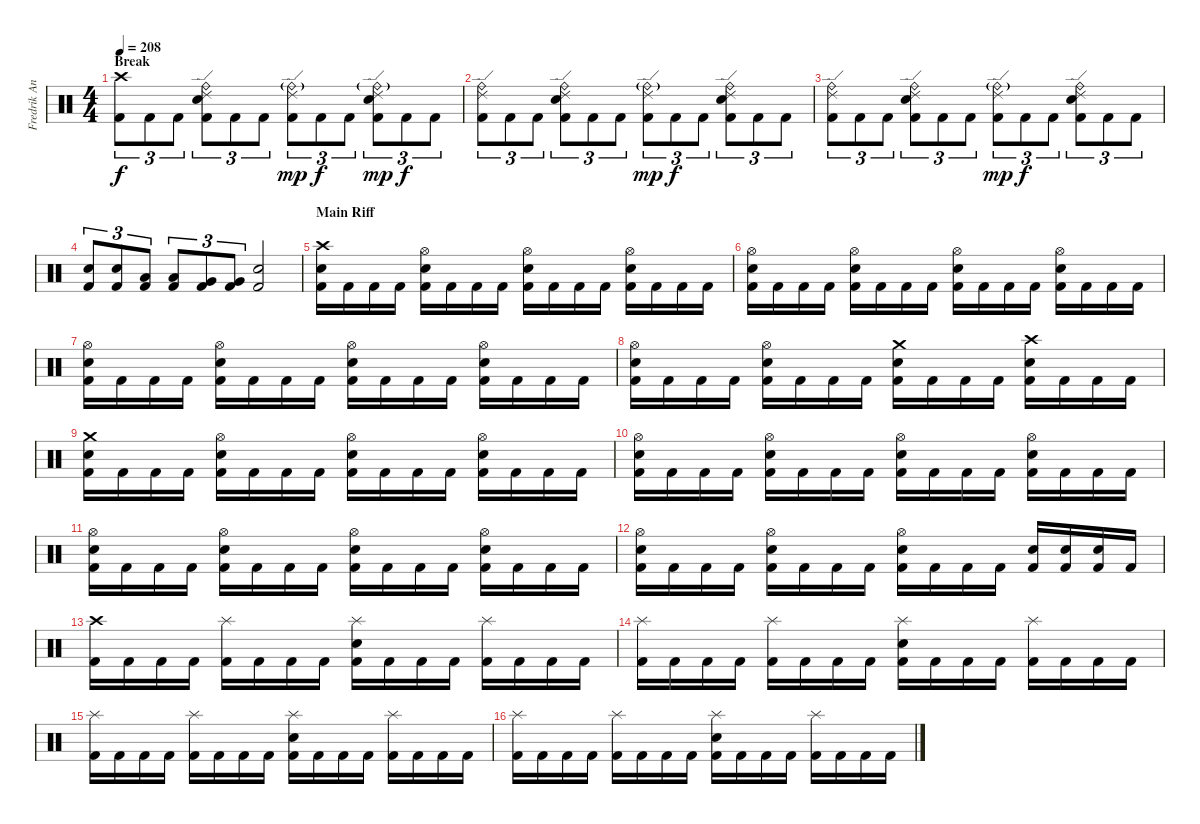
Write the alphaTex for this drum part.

\track ("Fredrik Andersson" "Fredrik An") {instrument percussion}
\staff {score}
\articulation defaults
\ts (4 4)
\section ("" "Break")
\tempo 208
\clef neutral
\ks c
("Crash high (hit)" "Kick (hit) 2").8{tu (3 2) dy f} "Kick (hit) 2".8{tu (3 2)} "Kick (hit) 2".8{tu (3 2)} ("Ride (edge) 2" "Electric Snare (hit)" "Ride (bell)" "Kick (hit) 2").8{tu (3 2)} "Kick (hit) 2".8{tu (3 2)} "Kick (hit) 2".8{tu (3 2)} ("Ride (edge) 2" "Ride (bell)"{g} "Kick (hit) 2").8{tu (3 2) dy mp} "Kick (hit) 2".8{tu (3 2) dy f} "Kick (hit) 2".8{tu (3 2)} ("Ride (edge) 2" "Electric Snare (hit)" "Ride (bell)"{g} "Kick (hit) 2").8{tu (3 2) dy mp} "Kick (hit) 2".8{tu (3 2) dy f} "Kick (hit) 2".8{tu (3 2)} |
("Ride (edge) 2" "Ride (bell)" "Kick (hit) 2").8{tu (3 2)} "Kick (hit) 2".8{tu (3 2)} "Kick (hit) 2".8{tu (3 2)} ("Ride (edge) 2" "Electric Snare (hit)" "Ride (bell)" "Kick (hit) 2").8{tu (3 2)} "Kick (hit) 2".8{tu (3 2)} "Kick (hit) 2".8{tu (3 2)} ("Ride (edge) 2" "Ride (bell)"{g} "Kick (hit) 2").8{tu (3 2) dy mp} "Kick (hit) 2".8{tu (3 2) dy f} "Kick (hit) 2".8{tu (3 2)} ("Ride (edge) 2" "Electric Snare (hit)" "Ride (bell)" "Kick (hit) 2").8{tu (3 2)} "Kick (hit) 2".8{tu (3 2)} "Kick (hit) 2".8{tu (3 2)} |
("Ride (edge) 2" "Ride (bell)" "Kick (hit) 2").8{tu (3 2)} "Kick (hit) 2".8{tu (3 2)} "Kick (hit) 2".8{tu (3 2)} ("Ride (edge) 2" "Electric Snare (hit)" "Ride (bell)" "Kick (hit) 2").8{tu (3 2)} "Kick (hit) 2".8{tu (3 2)} "Kick (hit) 2".8{tu (3 2)} ("Ride (edge) 2" "Ride (bell)"{g} "Kick (hit) 2").8{tu (3 2) dy mp} "Kick (hit) 2".8{tu (3 2) dy f} "Kick (hit) 2".8{tu (3 2)} ("Ride (edge) 2" "Electric Snare (hit)" "Ride (bell)" "Kick (hit) 2").8{tu (3 2)} "Kick (hit) 2".8{tu (3 2)} "Kick (hit) 2".8{tu (3 2)} |
("Electric Snare (hit)" "Kick (hit) 2").8{tu (3 2)} ("Electric Snare (hit)" "Kick (hit) 2").8{tu (3 2)} ("Low Tom (hit)" "Kick (hit) 2").8{tu (3 2)} ("Low Tom (hit)" "Kick (hit) 2").8{tu (3 2)} ("Very Low Tom (hit)" "Kick (hit) 2").8{tu (3 2)} ("Very Low Tom (hit)" "Kick (hit) 2").8{tu (3 2)} ("Electric Snare (hit)" "Kick (hit) 2").2 |
\section ("" "Main Riff")
("Crash high (hit)" "Electric Snare (hit)" "Kick (hit) 2").16 "Kick (hit) 2".16 "Kick (hit) 2".16 "Kick (hit) 2".16 ("Hi-Hat (open)" "Electric Snare (hit)" "Kick (hit) 2").16 "Kick (hit) 2".16 "Kick (hit) 2".16 "Kick (hit) 2".16 ("Hi-Hat (open)" "Electric Snare (hit)" "Kick (hit) 2").16 "Kick (hit) 2".16 "Kick (hit) 2".16 "Kick (hit) 2".16 ("Hi-Hat (open)" "Electric Snare (hit)" "Kick (hit) 2").16 "Kick (hit) 2".16 "Kick (hit) 2".16 "Kick (hit) 2".16 |
("Hi-Hat (open)" "Electric Snare (hit)" "Kick (hit) 2").16 "Kick (hit) 2".16 "Kick (hit) 2".16 "Kick (hit) 2".16 ("Hi-Hat (open)" "Electric Snare (hit)" "Kick (hit) 2").16 "Kick (hit) 2".16 "Kick (hit) 2".16 "Kick (hit) 2".16 ("Hi-Hat (open)" "Electric Snare (hit)" "Kick (hit) 2").16 "Kick (hit) 2".16 "Kick (hit) 2".16 "Kick (hit) 2".16 ("Hi-Hat (open)" "Electric Snare (hit)" "Kick (hit) 2").16 "Kick (hit) 2".16 "Kick (hit) 2".16 "Kick (hit) 2".16 |
("Hi-Hat (open)" "Electric Snare (hit)" "Kick (hit) 2").16 "Kick (hit) 2".16 "Kick (hit) 2".16 "Kick (hit) 2".16 ("Hi-Hat (open)" "Electric Snare (hit)" "Kick (hit) 2").16 "Kick (hit) 2".16 "Kick (hit) 2".16 "Kick (hit) 2".16 ("Hi-Hat (open)" "Electric Snare (hit)" "Kick (hit) 2").16 "Kick (hit) 2".16 "Kick (hit) 2".16 "Kick (hit) 2".16 ("Hi-Hat (open)" "Electric Snare (hit)" "Kick (hit) 2").16 "Kick (hit) 2".16 "Kick (hit) 2".16 "Kick (hit) 2".16 |
("Hi-Hat (open)" "Electric Snare (hit)" "Kick (hit) 2").16 "Kick (hit) 2".16 "Kick (hit) 2".16 "Kick (hit) 2".16 ("Hi-Hat (open)" "Electric Snare (hit)" "Kick (hit) 2").16 "Kick (hit) 2".16 "Kick (hit) 2".16 "Kick (hit) 2".16 ("Crash medium (hit)" "Electric Snare (hit)" "Kick (hit) 2").16 "Kick (hit) 2".16 "Kick (hit) 2".16 "Kick (hit) 2".16 ("Crash high (hit)" "Electric Snare (hit)" "Kick (hit) 2").16 "Kick (hit) 2".16 "Kick (hit) 2".16 "Kick (hit) 2".16 |
("Crash medium (hit)" "Electric Snare (hit)" "Kick (hit) 2").16 "Kick (hit) 2".16 "Kick (hit) 2".16 "Kick (hit) 2".16 ("Hi-Hat (open)" "Electric Snare (hit)" "Kick (hit) 2").16 "Kick (hit) 2".16 "Kick (hit) 2".16 "Kick (hit) 2".16 ("Hi-Hat (open)" "Electric Snare (hit)" "Kick (hit) 2").16 "Kick (hit) 2".16 "Kick (hit) 2".16 "Kick (hit) 2".16 ("Hi-Hat (open)" "Electric Snare (hit)" "Kick (hit) 2").16 "Kick (hit) 2".16 "Kick (hit) 2".16 "Kick (hit) 2".16 |
("Hi-Hat (open)" "Electric Snare (hit)" "Kick (hit) 2").16 "Kick (hit) 2".16 "Kick (hit) 2".16 "Kick (hit) 2".16 ("Hi-Hat (open)" "Electric Snare (hit)" "Kick (hit) 2").16 "Kick (hit) 2".16 "Kick (hit) 2".16 "Kick (hit) 2".16 ("Hi-Hat (open)" "Electric Snare (hit)" "Kick (hit) 2").16 "Kick (hit) 2".16 "Kick (hit) 2".16 "Kick (hit) 2".16 ("Hi-Hat (open)" "Electric Snare (hit)" "Kick (hit) 2").16 "Kick (hit) 2".16 "Kick (hit) 2".16 "Kick (hit) 2".16 |
("Hi-Hat (open)" "Electric Snare (hit)" "Kick (hit) 2").16 "Kick (hit) 2".16 "Kick (hit) 2".16 "Kick (hit) 2".16 ("Hi-Hat (open)" "Electric Snare (hit)" "Kick (hit) 2").16 "Kick (hit) 2".16 "Kick (hit) 2".16 "Kick (hit) 2".16 ("Hi-Hat (open)" "Electric Snare (hit)" "Kick (hit) 2").16 "Kick (hit) 2".16 "Kick (hit) 2".16 "Kick (hit) 2".16 ("Hi-Hat (open)" "Electric Snare (hit)" "Kick (hit) 2").16 "Kick (hit) 2".16 "Kick (hit) 2".16 "Kick (hit) 2".16 |
("Hi-Hat (open)" "Electric Snare (hit)" "Kick (hit) 2").16 "Kick (hit) 2".16 "Kick (hit) 2".16 "Kick (hit) 2".16 ("Hi-Hat (open)" "Electric Snare (hit)" "Kick (hit) 2").16 "Kick (hit) 2".16 "Kick (hit) 2".16 "Kick (hit) 2".16 ("Hi-Hat (open)" "Electric Snare (hit)" "Kick (hit) 2").16 "Kick (hit) 2".16 "Kick (hit) 2".16 "Kick (hit) 2".16 ("Electric Snare (hit)" "Kick (hit) 2").16 ("Electric Snare (hit)" "Kick (hit) 2").16 ("Electric Snare (hit)" "Kick (hit) 2").16 "Kick (hit) 2".16 |
("Crash high (hit)" "Kick (hit) 2").16 "Kick (hit) 2".16 "Kick (hit) 2".16 "Kick (hit) 2".16 ("Splash (hit)" "Kick (hit) 2").16 "Kick (hit) 2".16 "Kick (hit) 2".16 "Kick (hit) 2".16 ("Splash (hit)" "Electric Snare (hit)" "Kick (hit) 2").16 "Kick (hit) 2".16 "Kick (hit) 2".16 "Kick (hit) 2".16 ("Splash (hit)" "Kick (hit) 2").16 "Kick (hit) 2".16 "Kick (hit) 2".16 "Kick (hit) 2".16 |
("Splash (hit)" "Kick (hit) 2").16 "Kick (hit) 2".16 "Kick (hit) 2".16 "Kick (hit) 2".16 ("Splash (hit)" "Kick (hit) 2").16 "Kick (hit) 2".16 "Kick (hit) 2".16 "Kick (hit) 2".16 ("Splash (hit)" "Electric Snare (hit)" "Kick (hit) 2").16 "Kick (hit) 2".16 "Kick (hit) 2".16 "Kick (hit) 2".16 ("Splash (hit)" "Kick (hit) 2").16 "Kick (hit) 2".16 "Kick (hit) 2".16 "Kick (hit) 2".16 |
("Splash (hit)" "Kick (hit) 2").16 "Kick (hit) 2".16 "Kick (hit) 2".16 "Kick (hit) 2".16 ("Splash (hit)" "Kick (hit) 2").16 "Kick (hit) 2".16 "Kick (hit) 2".16 "Kick (hit) 2".16 ("Splash (hit)" "Electric Snare (hit)" "Kick (hit) 2").16 "Kick (hit) 2".16 "Kick (hit) 2".16 "Kick (hit) 2".16 ("Splash (hit)" "Kick (hit) 2").16 "Kick (hit) 2".16 "Kick (hit) 2".16 "Kick (hit) 2".16 |
("Splash (hit)" "Kick (hit) 2").16 "Kick (hit) 2".16 "Kick (hit) 2".16 "Kick (hit) 2".16 ("Splash (hit)" "Kick (hit) 2").16 "Kick (hit) 2".16 "Kick (hit) 2".16 "Kick (hit) 2".16 ("Splash (hit)" "Electric Snare (hit)" "Kick (hit) 2").16 "Kick (hit) 2".16 "Kick (hit) 2".16 "Kick (hit) 2".16 ("Splash (hit)" "Kick (hit) 2").16 "Kick (hit) 2".16 "Kick (hit) 2".16 "Kick (hit) 2".16
